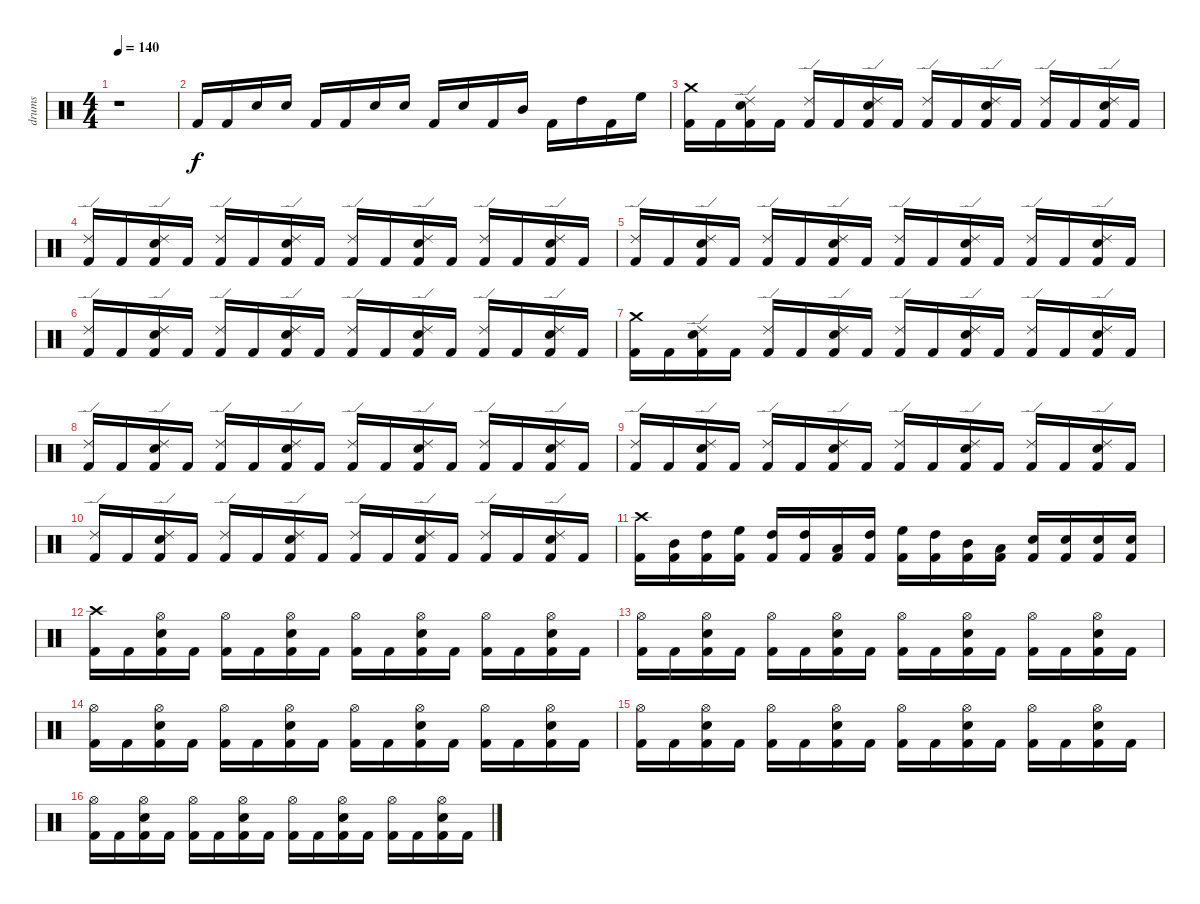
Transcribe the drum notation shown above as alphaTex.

\track ("drums" "drums") {instrument percussion}
\staff {score}
\articulation defaults
\ts (4 4)
\tempo 140
\clef neutral
\ks c
r.1{dy f} |
"Kick (hit) 2".16 "Kick (hit) 2".16 "Snare (hit) 2".16 "Snare (hit) 2".16 "Kick (hit) 2".16 "Kick (hit) 2".16 "Snare (hit) 2".16 "Snare (hit) 2".16 "Kick (hit) 2".16 "Snare (hit) 2".16 "Kick (hit) 2".16 "Mid Tom (hit)".16 "Kick (hit) 2".16 "High Tom (hit)".16 "Kick (hit) 2".16 "High Floor Tom (hit)".16 |
("Crash medium (hit)" "Kick (hit) 2").16 "Kick (hit) 2".16 ("Kick (hit) 2" "Ride (edge) 2" "Snare (hit) 2").16 "Kick (hit) 2".16 ("Ride (edge) 2" "Kick (hit) 2").16 "Kick (hit) 2".16 ("Kick (hit) 2" "Ride (edge) 2" "Snare (hit) 2").16 "Kick (hit) 2".16 ("Ride (edge) 2" "Kick (hit) 2").16 "Kick (hit) 2".16 ("Kick (hit) 2" "Ride (edge) 2" "Snare (hit) 2").16 "Kick (hit) 2".16 ("Ride (edge) 2" "Kick (hit) 2").16 "Kick (hit) 2".16 ("Kick (hit) 2" "Ride (edge) 2" "Snare (hit) 2").16 "Kick (hit) 2".16 |
("Ride (edge) 2" "Kick (hit) 2").16 "Kick (hit) 2".16 ("Kick (hit) 2" "Ride (edge) 2" "Snare (hit) 2").16 "Kick (hit) 2".16 ("Ride (edge) 2" "Kick (hit) 2").16 "Kick (hit) 2".16 ("Kick (hit) 2" "Ride (edge) 2" "Snare (hit) 2").16 "Kick (hit) 2".16 ("Ride (edge) 2" "Kick (hit) 2").16 "Kick (hit) 2".16 ("Kick (hit) 2" "Ride (edge) 2" "Snare (hit) 2").16 "Kick (hit) 2".16 ("Ride (edge) 2" "Kick (hit) 2").16 "Kick (hit) 2".16 ("Kick (hit) 2" "Ride (edge) 2" "Snare (hit) 2").16 "Kick (hit) 2".16 |
("Ride (edge) 2" "Kick (hit) 2").16 "Kick (hit) 2".16 ("Kick (hit) 2" "Ride (edge) 2" "Snare (hit) 2").16 "Kick (hit) 2".16 ("Ride (edge) 2" "Kick (hit) 2").16 "Kick (hit) 2".16 ("Kick (hit) 2" "Ride (edge) 2" "Snare (hit) 2").16 "Kick (hit) 2".16 ("Ride (edge) 2" "Kick (hit) 2").16 "Kick (hit) 2".16 ("Kick (hit) 2" "Ride (edge) 2" "Snare (hit) 2").16 "Kick (hit) 2".16 ("Ride (edge) 2" "Kick (hit) 2").16 "Kick (hit) 2".16 ("Kick (hit) 2" "Ride (edge) 2" "Snare (hit) 2").16 "Kick (hit) 2".16 |
("Ride (edge) 2" "Kick (hit) 2").16 "Kick (hit) 2".16 ("Kick (hit) 2" "Ride (edge) 2" "Snare (hit) 2").16 "Kick (hit) 2".16 ("Ride (edge) 2" "Kick (hit) 2").16 "Kick (hit) 2".16 ("Kick (hit) 2" "Ride (edge) 2" "Snare (hit) 2").16 "Kick (hit) 2".16 ("Ride (edge) 2" "Kick (hit) 2").16 "Kick (hit) 2".16 ("Kick (hit) 2" "Ride (edge) 2" "Snare (hit) 2").16 "Kick (hit) 2".16 ("Ride (edge) 2" "Kick (hit) 2").16 "Kick (hit) 2".16 ("Kick (hit) 2" "Ride (edge) 2" "Snare (hit) 2").16 "Kick (hit) 2".16 |
("Crash medium (hit)" "Kick (hit) 2").16 "Kick (hit) 2".16 ("Kick (hit) 2" "Ride (edge) 2" "Snare (hit) 2").16 "Kick (hit) 2".16 ("Ride (edge) 2" "Kick (hit) 2").16 "Kick (hit) 2".16 ("Kick (hit) 2" "Ride (edge) 2" "Snare (hit) 2").16 "Kick (hit) 2".16 ("Ride (edge) 2" "Kick (hit) 2").16 "Kick (hit) 2".16 ("Kick (hit) 2" "Ride (edge) 2" "Snare (hit) 2").16 "Kick (hit) 2".16 ("Ride (edge) 2" "Kick (hit) 2").16 "Kick (hit) 2".16 ("Kick (hit) 2" "Ride (edge) 2" "Snare (hit) 2").16 "Kick (hit) 2".16 |
("Ride (edge) 2" "Kick (hit) 2").16 "Kick (hit) 2".16 ("Kick (hit) 2" "Ride (edge) 2" "Snare (hit) 2").16 "Kick (hit) 2".16 ("Ride (edge) 2" "Kick (hit) 2").16 "Kick (hit) 2".16 ("Kick (hit) 2" "Ride (edge) 2" "Snare (hit) 2").16 "Kick (hit) 2".16 ("Ride (edge) 2" "Kick (hit) 2").16 "Kick (hit) 2".16 ("Kick (hit) 2" "Ride (edge) 2" "Snare (hit) 2").16 "Kick (hit) 2".16 ("Ride (edge) 2" "Kick (hit) 2").16 "Kick (hit) 2".16 ("Kick (hit) 2" "Ride (edge) 2" "Snare (hit) 2").16 "Kick (hit) 2".16 |
("Ride (edge) 2" "Kick (hit) 2").16 "Kick (hit) 2".16 ("Kick (hit) 2" "Ride (edge) 2" "Snare (hit) 2").16 "Kick (hit) 2".16 ("Ride (edge) 2" "Kick (hit) 2").16 "Kick (hit) 2".16 ("Kick (hit) 2" "Ride (edge) 2" "Snare (hit) 2").16 "Kick (hit) 2".16 ("Ride (edge) 2" "Kick (hit) 2").16 "Kick (hit) 2".16 ("Kick (hit) 2" "Ride (edge) 2" "Snare (hit) 2").16 "Kick (hit) 2".16 ("Ride (edge) 2" "Kick (hit) 2").16 "Kick (hit) 2".16 ("Kick (hit) 2" "Ride (edge) 2" "Snare (hit) 2").16 "Kick (hit) 2".16 |
("Ride (edge) 2" "Kick (hit) 2").16 "Kick (hit) 2".16 ("Kick (hit) 2" "Ride (edge) 2" "Snare (hit) 2").16 "Kick (hit) 2".16 ("Ride (edge) 2" "Kick (hit) 2").16 "Kick (hit) 2".16 ("Kick (hit) 2" "Ride (edge) 2" "Snare (hit) 2").16 "Kick (hit) 2".16 ("Ride (edge) 2" "Kick (hit) 2").16 "Kick (hit) 2".16 ("Kick (hit) 2" "Ride (edge) 2" "Snare (hit) 2").16 "Kick (hit) 2".16 ("Ride (edge) 2" "Kick (hit) 2").16 "Kick (hit) 2".16 ("Kick (hit) 2" "Ride (edge) 2" "Snare (hit) 2").16 "Kick (hit) 2".16 |
("Crash high (hit)" "Kick (hit) 2").16 ("Mid Tom (hit)" "Kick (hit) 2").16 ("Kick (hit) 2" "High Tom (hit)").16 ("Kick (hit) 2" "High Floor Tom (hit)").16 ("Kick (hit) 2" "High Tom (hit)").16 ("Kick (hit) 2" "High Tom (hit)").16 ("Kick (hit) 2" "Low Tom (hit)").16 ("Kick (hit) 2" "High Tom (hit)").16 ("Kick (hit) 2" "High Floor Tom (hit)").16 ("Kick (hit) 2" "High Tom (hit)").16 ("Kick (hit) 2" "Mid Tom (hit)").16 ("Kick (hit) 2" "Low Tom (hit)").16 ("Kick (hit) 2" "Snare (hit) 2").16 ("Kick (hit) 2" "Snare (hit) 2").16 ("Kick (hit) 2" "Snare (hit) 2").16 ("Kick (hit) 2" "Snare (hit) 2").16 |
("Crash high (hit)" "Kick (hit) 2").16 "Kick (hit) 2".16 ("Hi-Hat (open)" "Kick (hit) 2" "Snare (hit) 2").16 "Kick (hit) 2".16 ("Hi-Hat (open)" "Kick (hit) 2").16 "Kick (hit) 2".16 ("Hi-Hat (open)" "Kick (hit) 2" "Snare (hit) 2").16 "Kick (hit) 2".16 ("Hi-Hat (open)" "Kick (hit) 2").16 "Kick (hit) 2".16 ("Hi-Hat (open)" "Kick (hit) 2" "Snare (hit) 2").16 "Kick (hit) 2".16 ("Hi-Hat (open)" "Kick (hit) 2").16 "Kick (hit) 2".16 ("Hi-Hat (open)" "Kick (hit) 2" "Snare (hit) 2").16 "Kick (hit) 2".16 |
("Hi-Hat (open)" "Kick (hit) 2").16 "Kick (hit) 2".16 ("Hi-Hat (open)" "Kick (hit) 2" "Snare (hit) 2").16 "Kick (hit) 2".16 ("Hi-Hat (open)" "Kick (hit) 2").16 "Kick (hit) 2".16 ("Hi-Hat (open)" "Kick (hit) 2" "Snare (hit) 2").16 "Kick (hit) 2".16 ("Hi-Hat (open)" "Kick (hit) 2").16 "Kick (hit) 2".16 ("Hi-Hat (open)" "Kick (hit) 2" "Snare (hit) 2").16 "Kick (hit) 2".16 ("Hi-Hat (open)" "Kick (hit) 2").16 "Kick (hit) 2".16 ("Hi-Hat (open)" "Kick (hit) 2" "Snare (hit) 2").16 "Kick (hit) 2".16 |
("Hi-Hat (open)" "Kick (hit) 2").16 "Kick (hit) 2".16 ("Hi-Hat (open)" "Kick (hit) 2" "Snare (hit) 2").16 "Kick (hit) 2".16 ("Hi-Hat (open)" "Kick (hit) 2").16 "Kick (hit) 2".16 ("Hi-Hat (open)" "Kick (hit) 2" "Snare (hit) 2").16 "Kick (hit) 2".16 ("Hi-Hat (open)" "Kick (hit) 2").16 "Kick (hit) 2".16 ("Hi-Hat (open)" "Kick (hit) 2" "Snare (hit) 2").16 "Kick (hit) 2".16 ("Hi-Hat (open)" "Kick (hit) 2").16 "Kick (hit) 2".16 ("Hi-Hat (open)" "Kick (hit) 2" "Snare (hit) 2").16 "Kick (hit) 2".16 |
("Hi-Hat (open)" "Kick (hit) 2").16 "Kick (hit) 2".16 ("Hi-Hat (open)" "Kick (hit) 2" "Snare (hit) 2").16 "Kick (hit) 2".16 ("Hi-Hat (open)" "Kick (hit) 2").16 "Kick (hit) 2".16 ("Hi-Hat (open)" "Kick (hit) 2" "Snare (hit) 2").16 "Kick (hit) 2".16 ("Hi-Hat (open)" "Kick (hit) 2").16 "Kick (hit) 2".16 ("Hi-Hat (open)" "Kick (hit) 2" "Snare (hit) 2").16 "Kick (hit) 2".16 ("Hi-Hat (open)" "Kick (hit) 2").16 "Kick (hit) 2".16 ("Hi-Hat (open)" "Kick (hit) 2" "Snare (hit) 2").16 "Kick (hit) 2".16 |
("Hi-Hat (open)" "Kick (hit) 2").16 "Kick (hit) 2".16 ("Hi-Hat (open)" "Kick (hit) 2" "Snare (hit) 2").16 "Kick (hit) 2".16 ("Hi-Hat (open)" "Kick (hit) 2").16 "Kick (hit) 2".16 ("Hi-Hat (open)" "Kick (hit) 2" "Snare (hit) 2").16 "Kick (hit) 2".16 ("Hi-Hat (open)" "Kick (hit) 2").16 "Kick (hit) 2".16 ("Hi-Hat (open)" "Kick (hit) 2" "Snare (hit) 2").16 "Kick (hit) 2".16 ("Hi-Hat (open)" "Kick (hit) 2").16 "Kick (hit) 2".16 ("Hi-Hat (open)" "Kick (hit) 2" "Snare (hit) 2").16 "Kick (hit) 2".16
